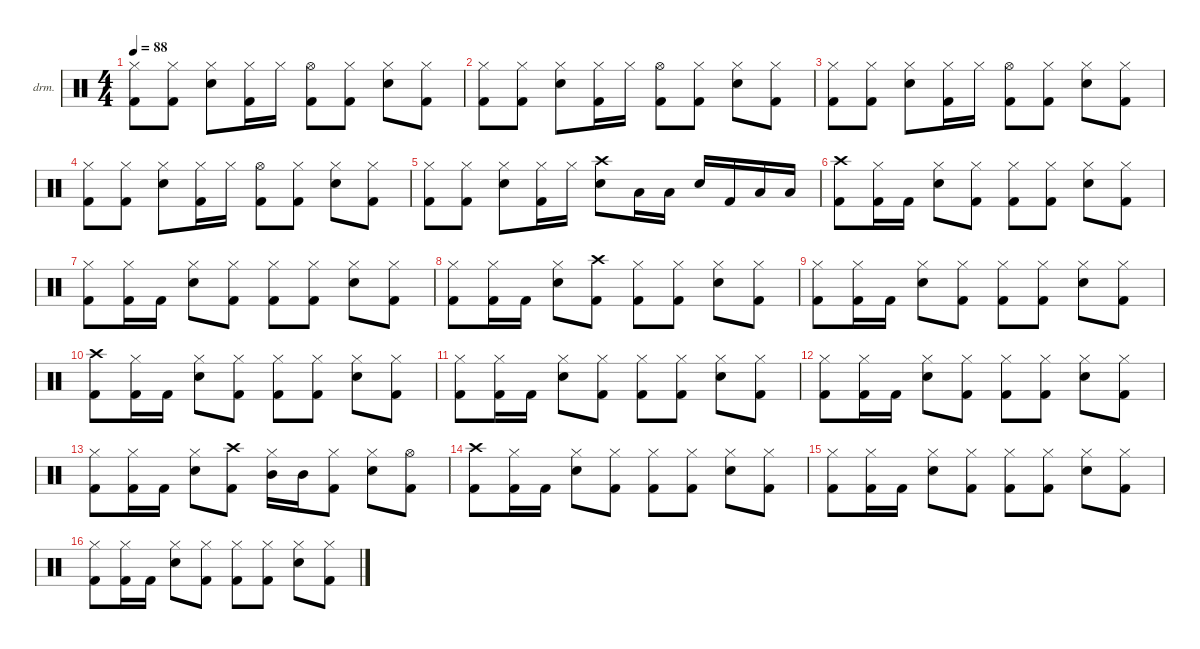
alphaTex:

\defaultSystemsLayout 4
\hideDynamics
\bracketExtendMode nobrackets
\firstSystemTrackNameOrientation horizontal
\otherSystemsTrackNameOrientation horizontal
\track ("Drums" "drm.") {instrument percussion}
\staff {score}
\articulation defaults
\ts (4 4)
\tempo 88
\clef neutral
\ks c
("Hi-Hat (closed)" "Kick (hit) 2").8{dy f} ("Hi-Hat (closed)" "Kick (hit) 2").8 ("Hi-Hat (closed)" "Snare (hit) 2").8 ("Hi-Hat (closed)" "Kick (hit) 2").16 "Hi-Hat (closed)".16 ("Hi-Hat (open)" "Kick (hit) 2").8 ("Hi-Hat (closed)" "Kick (hit) 2").8 ("Hi-Hat (closed)" "Snare (hit) 2").8 ("Hi-Hat (closed)" "Kick (hit) 2").8 |
("Hi-Hat (closed)" "Kick (hit) 2").8 ("Hi-Hat (closed)" "Kick (hit) 2").8 ("Hi-Hat (closed)" "Snare (hit) 2").8 ("Hi-Hat (closed)" "Kick (hit) 2").16 "Hi-Hat (closed)".16 ("Hi-Hat (open)" "Kick (hit) 2").8 ("Hi-Hat (closed)" "Kick (hit) 2").8 ("Hi-Hat (closed)" "Snare (hit) 2").8 ("Hi-Hat (closed)" "Kick (hit) 2").8 |
("Hi-Hat (closed)" "Kick (hit) 2").8 ("Hi-Hat (closed)" "Kick (hit) 2").8 ("Hi-Hat (closed)" "Snare (hit) 2").8 ("Hi-Hat (closed)" "Kick (hit) 2").16 "Hi-Hat (closed)".16 ("Hi-Hat (open)" "Kick (hit) 2").8 ("Hi-Hat (closed)" "Kick (hit) 2").8 ("Hi-Hat (closed)" "Snare (hit) 2").8 ("Hi-Hat (closed)" "Kick (hit) 2").8 |
("Hi-Hat (closed)" "Kick (hit) 2").8 ("Hi-Hat (closed)" "Kick (hit) 2").8 ("Hi-Hat (closed)" "Snare (hit) 2").8 ("Hi-Hat (closed)" "Kick (hit) 2").16 "Hi-Hat (closed)".16 ("Hi-Hat (open)" "Kick (hit) 2").8 ("Hi-Hat (closed)" "Kick (hit) 2").8 ("Hi-Hat (closed)" "Snare (hit) 2").8 ("Hi-Hat (closed)" "Kick (hit) 2").8 |
("Hi-Hat (closed)" "Kick (hit) 2").8 ("Hi-Hat (closed)" "Kick (hit) 2").8 ("Hi-Hat (closed)" "Snare (hit) 2").8 ("Hi-Hat (closed)" "Kick (hit) 2").16 "Hi-Hat (closed)".16 ("Crash high (hit)" "Snare (hit) 2").8 "Low Tom (hit)".16 "Low Tom (hit)".16 "Snare (hit) 2".16 "Kick (hit) 2".16 "Low Tom (hit)".16 "Low Tom (hit)".16 |
("Crash high (hit)" "Kick (hit) 2").8 ("Hi-Hat (closed)" "Kick (hit) 2").16 "Kick (hit) 2".16 ("Hi-Hat (closed)" "Snare (hit) 2").8 ("Hi-Hat (closed)" "Kick (hit) 2").8 ("Hi-Hat (closed)" "Kick (hit) 2").8 ("Hi-Hat (closed)" "Kick (hit) 2").8 ("Hi-Hat (closed)" "Snare (hit) 2").8 ("Hi-Hat (closed)" "Kick (hit) 2").8 |
("Hi-Hat (closed)" "Kick (hit) 2").8 ("Hi-Hat (closed)" "Kick (hit) 2").16 "Kick (hit) 2".16 ("Hi-Hat (closed)" "Snare (hit) 2").8 ("Hi-Hat (closed)" "Kick (hit) 2").8 ("Hi-Hat (closed)" "Kick (hit) 2").8 ("Hi-Hat (closed)" "Kick (hit) 2").8 ("Hi-Hat (closed)" "Snare (hit) 2").8 ("Hi-Hat (closed)" "Kick (hit) 2").8 |
("Hi-Hat (closed)" "Kick (hit) 2").8 ("Hi-Hat (closed)" "Kick (hit) 2").16 "Kick (hit) 2".16 ("Hi-Hat (closed)" "Snare (hit) 2").8 ("Crash high (hit)" "Kick (hit) 2").8 ("Hi-Hat (closed)" "Kick (hit) 2").8 ("Hi-Hat (closed)" "Kick (hit) 2").8 ("Hi-Hat (closed)" "Snare (hit) 2").8 ("Hi-Hat (closed)" "Kick (hit) 2").8 |
("Hi-Hat (closed)" "Kick (hit) 2").8 ("Hi-Hat (closed)" "Kick (hit) 2").16 "Kick (hit) 2".16 ("Hi-Hat (closed)" "Snare (hit) 2").8 ("Hi-Hat (closed)" "Kick (hit) 2").8 ("Hi-Hat (closed)" "Kick (hit) 2").8 ("Hi-Hat (closed)" "Kick (hit) 2").8 ("Hi-Hat (closed)" "Snare (hit) 2").8 ("Hi-Hat (closed)" "Kick (hit) 2").8 |
("Crash high (hit)" "Kick (hit) 2").8 ("Hi-Hat (closed)" "Kick (hit) 2").16 "Kick (hit) 2".16 ("Hi-Hat (closed)" "Snare (hit) 2").8 ("Hi-Hat (closed)" "Kick (hit) 2").8 ("Hi-Hat (closed)" "Kick (hit) 2").8 ("Hi-Hat (closed)" "Kick (hit) 2").8 ("Hi-Hat (closed)" "Snare (hit) 2").8 ("Hi-Hat (closed)" "Kick (hit) 2").8 |
("Hi-Hat (closed)" "Kick (hit) 2").8 ("Hi-Hat (closed)" "Kick (hit) 2").16 "Kick (hit) 2".16 ("Hi-Hat (closed)" "Snare (hit) 2").8 ("Hi-Hat (closed)" "Kick (hit) 2").8 ("Hi-Hat (closed)" "Kick (hit) 2").8 ("Hi-Hat (closed)" "Kick (hit) 2").8 ("Hi-Hat (closed)" "Snare (hit) 2").8 ("Hi-Hat (closed)" "Kick (hit) 2").8 |
("Hi-Hat (closed)" "Kick (hit) 2").8 ("Hi-Hat (closed)" "Kick (hit) 2").16 "Kick (hit) 2".16 ("Hi-Hat (closed)" "Snare (hit) 2").8 ("Hi-Hat (closed)" "Kick (hit) 2").8 ("Hi-Hat (closed)" "Kick (hit) 2").8 ("Hi-Hat (closed)" "Kick (hit) 2").8 ("Hi-Hat (closed)" "Snare (hit) 2").8 ("Hi-Hat (closed)" "Kick (hit) 2").8 |
("Hi-Hat (closed)" "Kick (hit) 2").8 ("Hi-Hat (closed)" "Kick (hit) 2").16 "Kick (hit) 2".16 ("Hi-Hat (closed)" "Snare (hit) 2").8 ("Crash high (hit)" "Kick (hit) 2").8 ("Hi-Hat (closed)" "Mid Tom (hit)").16 "Mid Tom (hit)".16 ("Hi-Hat (closed)" "Kick (hit) 2").8 ("Hi-Hat (closed)" "Snare (hit) 2").8 ("Hi-Hat (open)" "Kick (hit) 2").8 |
("Crash high (hit)" "Kick (hit) 2").8 ("Hi-Hat (closed)" "Kick (hit) 2").16 "Kick (hit) 2".16 ("Hi-Hat (closed)" "Snare (hit) 2").8 ("Hi-Hat (closed)" "Kick (hit) 2").8 ("Hi-Hat (closed)" "Kick (hit) 2").8 ("Hi-Hat (closed)" "Kick (hit) 2").8 ("Hi-Hat (closed)" "Snare (hit) 2").8 ("Hi-Hat (closed)" "Kick (hit) 2").8 |
("Hi-Hat (closed)" "Kick (hit) 2").8 ("Hi-Hat (closed)" "Kick (hit) 2").16 "Kick (hit) 2".16 ("Hi-Hat (closed)" "Snare (hit) 2").8 ("Hi-Hat (closed)" "Kick (hit) 2").8 ("Hi-Hat (closed)" "Kick (hit) 2").8 ("Hi-Hat (closed)" "Kick (hit) 2").8 ("Hi-Hat (closed)" "Snare (hit) 2").8 ("Hi-Hat (closed)" "Kick (hit) 2").8 |
("Hi-Hat (closed)" "Kick (hit) 2").8 ("Hi-Hat (closed)" "Kick (hit) 2").16 "Kick (hit) 2".16 ("Hi-Hat (closed)" "Snare (hit) 2").8 ("Hi-Hat (closed)" "Kick (hit) 2").8 ("Hi-Hat (closed)" "Kick (hit) 2").8 ("Hi-Hat (closed)" "Kick (hit) 2").8 ("Hi-Hat (closed)" "Snare (hit) 2").8 ("Hi-Hat (closed)" "Kick (hit) 2").8
